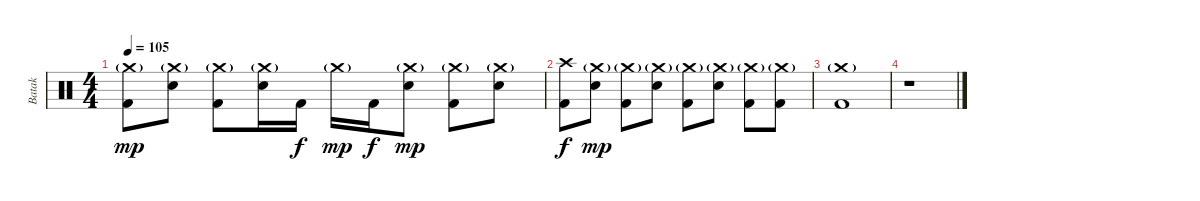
\track ("Batak" "Batak") {instrument percussion bank 7}
\staff {score}
\articulation defaults
\ts (4 4)
\tempo 105
\clef neutral
\ks c
("Crash medium (hit)"{g} "Kick (hit) 2").8{dy mp} ("Crash medium (hit)"{g} "Electric Snare (hit)").8 ("Crash medium (hit)"{g} "Kick (hit) 2").8 ("Crash medium (hit)"{g} "Electric Snare (hit)").16 "Kick (hit) 2".16{dy f} "Crash medium (hit)"{g}.16{dy mp} "Kick (hit) 2".16{dy f} ("Crash medium (hit)"{g} "Electric Snare (hit)").8{dy mp} ("Crash medium (hit)"{g} "Kick (hit) 2").8 ("Crash medium (hit)"{g} "Electric Snare (hit)").8 |
("Crash high (hit)" "Kick (hit) 2").8{dy f} ("Crash medium (hit)"{g} "Electric Snare (hit)").8{dy mp} ("Crash medium (hit)"{g} "Kick (hit) 2").8 ("Crash medium (hit)"{g} "Electric Snare (hit)").8 ("Crash medium (hit)"{g} "Kick (hit) 2").8 ("Crash medium (hit)"{g} "Electric Snare (hit)").8 ("Crash medium (hit)"{g} "Kick (hit) 2").8 ("Crash medium (hit)"{g} "Kick (hit) 2").8 |
("Crash medium (hit)"{g} "Kick (hit) 2").1 |
r.1
